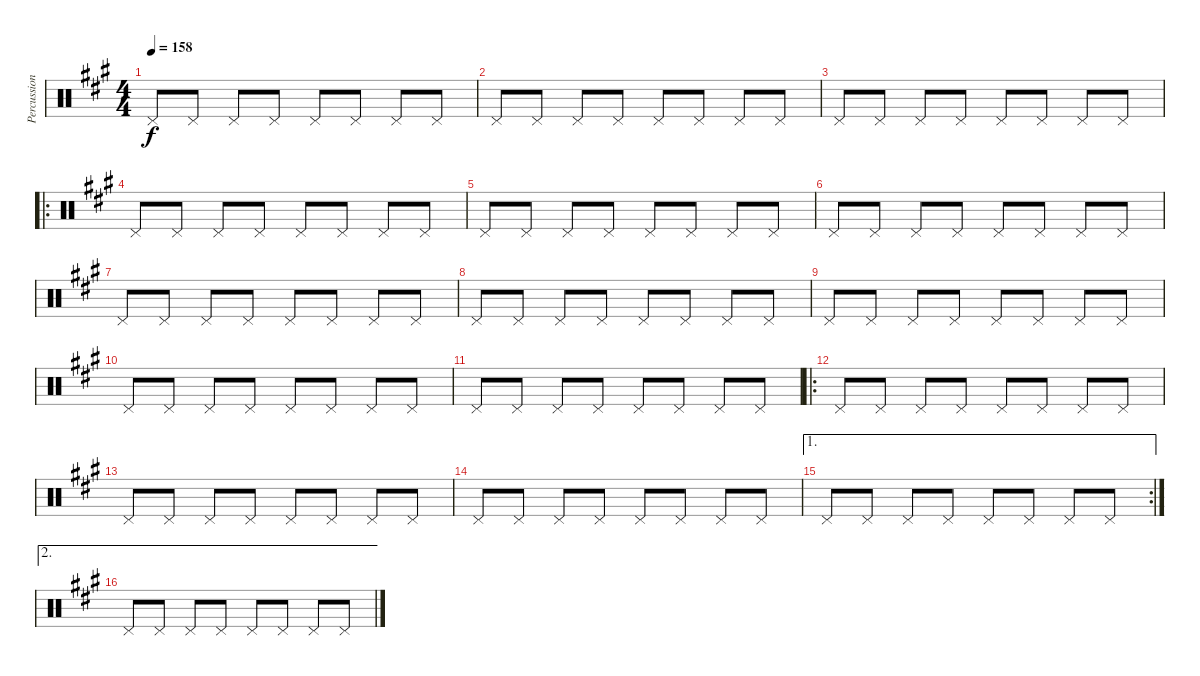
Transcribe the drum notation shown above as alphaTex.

\track ("Percussion" "Percussion") {instrument percussion}
\staff {score}
\articulation defaults
\ts (4 4)
\tempo 158
\clef neutral
\ks a "Pedal Hi-Hat (hit)".8{dy f} "Pedal Hi-Hat (hit)".8 "Pedal Hi-Hat (hit)".8 "Pedal Hi-Hat (hit)".8 "Pedal Hi-Hat (hit)".8 "Pedal Hi-Hat (hit)".8 "Pedal Hi-Hat (hit)".8 "Pedal Hi-Hat (hit)".8
|
"Pedal Hi-Hat (hit)".8 "Pedal Hi-Hat (hit)".8 "Pedal Hi-Hat (hit)".8 "Pedal Hi-Hat (hit)".8 "Pedal Hi-Hat (hit)".8 "Pedal Hi-Hat (hit)".8 "Pedal Hi-Hat (hit)".8 "Pedal Hi-Hat (hit)".8 |
"Pedal Hi-Hat (hit)".8 "Pedal Hi-Hat (hit)".8 "Pedal Hi-Hat (hit)".8 "Pedal Hi-Hat (hit)".8 "Pedal Hi-Hat (hit)".8 "Pedal Hi-Hat (hit)".8 "Pedal Hi-Hat (hit)".8 "Pedal Hi-Hat (hit)".8 |
\ro "Pedal Hi-Hat (hit)".8 "Pedal Hi-Hat (hit)".8 "Pedal Hi-Hat (hit)".8 "Pedal Hi-Hat (hit)".8 "Pedal Hi-Hat (hit)".8 "Pedal Hi-Hat (hit)".8 "Pedal Hi-Hat (hit)".8 "Pedal Hi-Hat (hit)".8
|
"Pedal Hi-Hat (hit)".8 "Pedal Hi-Hat (hit)".8 "Pedal Hi-Hat (hit)".8 "Pedal Hi-Hat (hit)".8 "Pedal Hi-Hat (hit)".8 "Pedal Hi-Hat (hit)".8 "Pedal Hi-Hat (hit)".8 "Pedal Hi-Hat (hit)".8 |
"Pedal Hi-Hat (hit)".8 "Pedal Hi-Hat (hit)".8 "Pedal Hi-Hat (hit)".8 "Pedal Hi-Hat (hit)".8 "Pedal Hi-Hat (hit)".8 "Pedal Hi-Hat (hit)".8 "Pedal Hi-Hat (hit)".8 "Pedal Hi-Hat (hit)".8 |
"Pedal Hi-Hat (hit)".8 "Pedal Hi-Hat (hit)".8 "Pedal Hi-Hat (hit)".8 "Pedal Hi-Hat (hit)".8 "Pedal Hi-Hat (hit)".8 "Pedal Hi-Hat (hit)".8 "Pedal Hi-Hat (hit)".8 "Pedal Hi-Hat (hit)".8 |
"Pedal Hi-Hat (hit)".8 "Pedal Hi-Hat (hit)".8 "Pedal Hi-Hat (hit)".8 "Pedal Hi-Hat (hit)".8 "Pedal Hi-Hat (hit)".8 "Pedal Hi-Hat (hit)".8 "Pedal Hi-Hat (hit)".8 "Pedal Hi-Hat (hit)".8 |
"Pedal Hi-Hat (hit)".8 "Pedal Hi-Hat (hit)".8 "Pedal Hi-Hat (hit)".8 "Pedal Hi-Hat (hit)".8 "Pedal Hi-Hat (hit)".8 "Pedal Hi-Hat (hit)".8 "Pedal Hi-Hat (hit)".8 "Pedal Hi-Hat (hit)".8 |
"Pedal Hi-Hat (hit)".8 "Pedal Hi-Hat (hit)".8 "Pedal Hi-Hat (hit)".8 "Pedal Hi-Hat (hit)".8 "Pedal Hi-Hat (hit)".8 "Pedal Hi-Hat (hit)".8 "Pedal Hi-Hat (hit)".8 "Pedal Hi-Hat (hit)".8 |
"Pedal Hi-Hat (hit)".8 "Pedal Hi-Hat (hit)".8 "Pedal Hi-Hat (hit)".8 "Pedal Hi-Hat (hit)".8 "Pedal Hi-Hat (hit)".8 "Pedal Hi-Hat (hit)".8 "Pedal Hi-Hat (hit)".8 "Pedal Hi-Hat (hit)".8 |
\ro "Pedal Hi-Hat (hit)".8 "Pedal Hi-Hat (hit)".8 "Pedal Hi-Hat (hit)".8 "Pedal Hi-Hat (hit)".8 "Pedal Hi-Hat (hit)".8 "Pedal Hi-Hat (hit)".8 "Pedal Hi-Hat (hit)".8 "Pedal Hi-Hat (hit)".8
|
"Pedal Hi-Hat (hit)".8 "Pedal Hi-Hat (hit)".8 "Pedal Hi-Hat (hit)".8 "Pedal Hi-Hat (hit)".8 "Pedal Hi-Hat (hit)".8 "Pedal Hi-Hat (hit)".8 "Pedal Hi-Hat (hit)".8 "Pedal Hi-Hat (hit)".8 |
"Pedal Hi-Hat (hit)".8 "Pedal Hi-Hat (hit)".8 "Pedal Hi-Hat (hit)".8 "Pedal Hi-Hat (hit)".8 "Pedal Hi-Hat (hit)".8 "Pedal Hi-Hat (hit)".8 "Pedal Hi-Hat (hit)".8 "Pedal Hi-Hat (hit)".8 |
\ae 1
\rc 2 "Pedal Hi-Hat (hit)".8 "Pedal Hi-Hat (hit)".8 "Pedal Hi-Hat (hit)".8 "Pedal Hi-Hat (hit)".8 "Pedal Hi-Hat (hit)".8 "Pedal Hi-Hat (hit)".8 "Pedal Hi-Hat (hit)".8 "Pedal Hi-Hat (hit)".8
|
\ae 2 "Pedal Hi-Hat (hit)".8 "Pedal Hi-Hat (hit)".8 "Pedal Hi-Hat (hit)".8 "Pedal Hi-Hat (hit)".8 "Pedal Hi-Hat (hit)".8 "Pedal Hi-Hat (hit)".8 "Pedal Hi-Hat (hit)".8 "Pedal Hi-Hat (hit)".8
